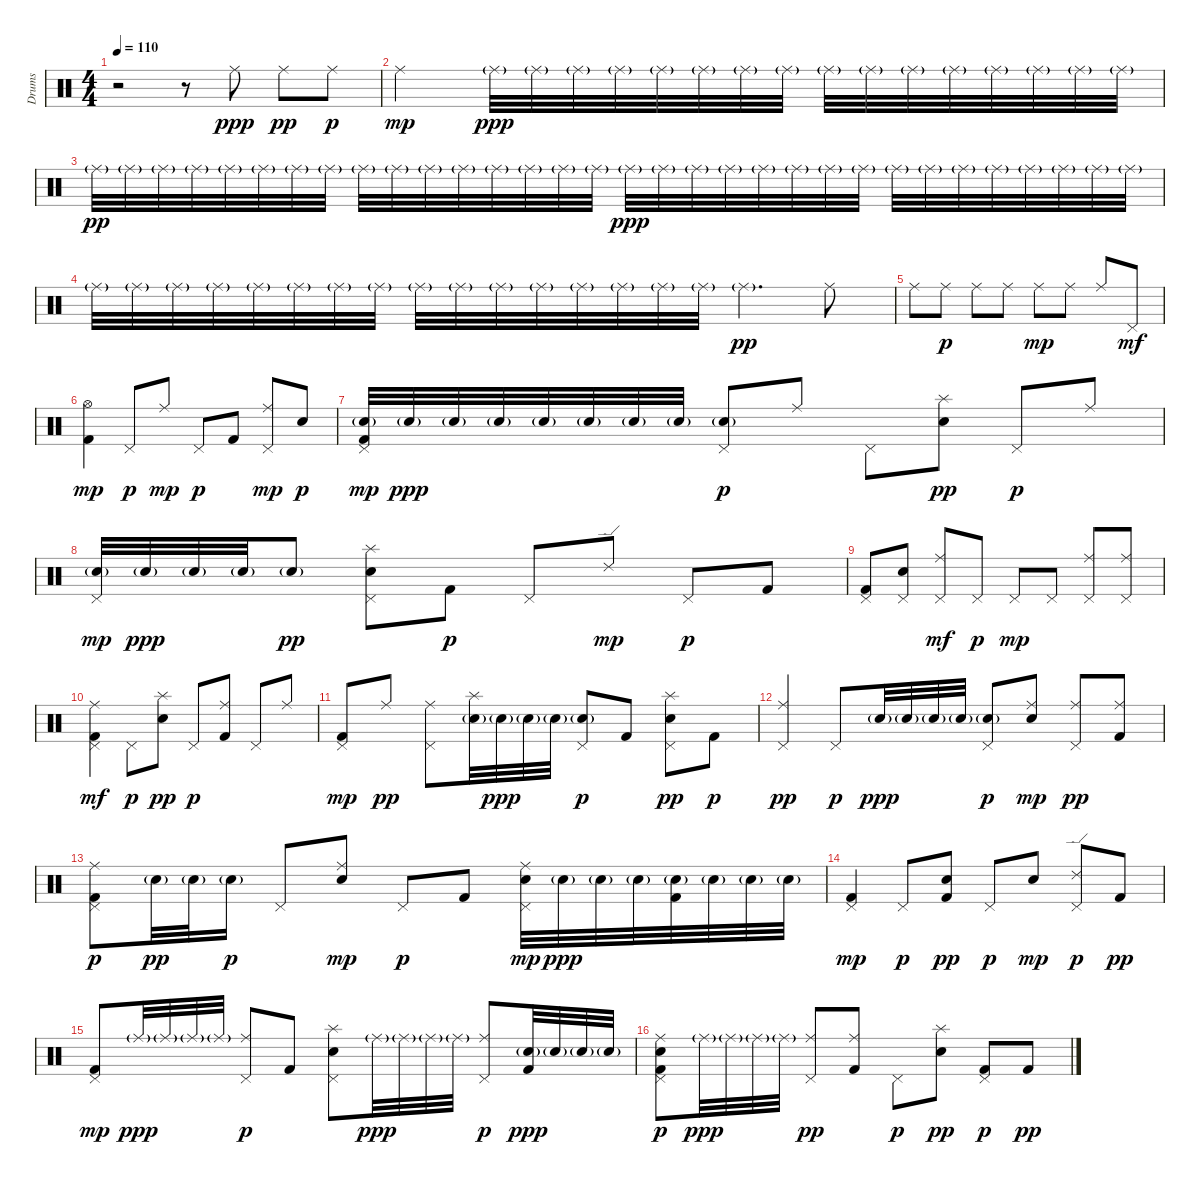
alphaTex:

\track ("Drums" "Drums") {instrument percussion}
\staff {score}
\articulation defaults
\ts (4 4)
\tempo 110
\clef neutral
\ks c
r.2{dy fff} r.8 "Ride (middle)".8{dy ppp volume 10} "Ride (middle)".8{dy pp} "Ride (middle)".8{dy p} |
"Ride (middle)".2{dy mp} "Ride (middle)"{g}.32{dy ppp volume 5} "Ride (middle)"{g}.32 "Ride (middle)"{g}.32 "Ride (middle)"{g}.32 "Ride (middle)"{g}.32 "Ride (middle)"{g}.32 "Ride (middle)"{g}.32 "Ride (middle)"{g}.32 "Ride (middle)"{g}.32 "Ride (middle)"{g}.32 "Ride (middle)"{g}.32 "Ride (middle)"{g}.32 "Ride (middle)"{g}.32 "Ride (middle)"{g}.32 "Ride (middle)"{g}.32 "Ride (middle)"{g}.32 |
"Ride (middle)"{g}.32{dy pp} "Ride (middle)"{g}.32 "Ride (middle)"{g}.32 "Ride (middle)"{g}.32 "Ride (middle)"{g}.32 "Ride (middle)"{g}.32 "Ride (middle)"{g}.32 "Ride (middle)"{g}.32 "Ride (middle)"{g}.32 "Ride (middle)"{g}.32 "Ride (middle)"{g}.32 "Ride (middle)"{g}.32 "Ride (middle)"{g}.32 "Ride (middle)"{g}.32 "Ride (middle)"{g}.32 "Ride (middle)"{g}.32 "Ride (middle)"{g}.32{dy ppp} "Ride (middle)"{g}.32 "Ride (middle)"{g}.32 "Ride (middle)"{g}.32 "Ride (middle)"{g}.32 "Ride (middle)"{g}.32 "Ride (middle)"{g}.32 "Ride (middle)"{g}.32 "Ride (middle)"{g}.32 "Ride (middle)"{g}.32 "Ride (middle)"{g}.32 "Ride (middle)"{g}.32 "Ride (middle)"{g}.32 "Ride (middle)"{g}.32 "Ride (middle)"{g}.32 "Ride (middle)"{g}.32 |
"Ride (middle)"{g}.32{volume 3} "Ride (middle)"{g}.32 "Ride (middle)"{g}.32 "Ride (middle)"{g}.32 "Ride (middle)"{g}.32 "Ride (middle)"{g}.32 "Ride (middle)"{g}.32 "Ride (middle)"{g}.32 "Ride (middle)"{g}.32 "Ride (middle)"{g}.32 "Ride (middle)"{g}.32 "Ride (middle)"{g}.32 "Ride (middle)"{g}.32 "Ride (middle)"{g}.32 "Ride (middle)"{g}.32 "Ride (middle)"{g}.32 "Ride (middle)"{g}.4{d dy pp volume 10} "Ride (middle)".8{volume 14} |
"Ride (middle)".8 "Ride (middle)".8{dy p} "Ride (middle)".8 "Ride (middle)".8 "Ride (middle)".8{dy mp} "Ride (middle)".8 "Ride (middle)".8 "Pedal Hi-Hat (hit)".8{dy mf} |
("Kick (hit) 2" "Hi-Hat (open)").4{dy mp} "Pedal Hi-Hat (hit)".8{dy p} "Ride (middle)".8{dy mp} "Pedal Hi-Hat (hit)".8{dy p} "Kick (hit) 2".8 ("Pedal Hi-Hat (hit)" "Ride (middle)").8{dy mp} "Snare (hit) 2".8{dy p} |
("Kick (hit) 2" "Snare (hit) 2"{g} "Pedal Hi-Hat (hit)").32{dy mp} "Snare (hit) 2"{g}.32{dy ppp} "Snare (hit) 2"{g}.32 "Snare (hit) 2"{g}.32 "Snare (hit) 2"{g}.32 "Snare (hit) 2"{g}.32 "Snare (hit) 2"{g}.32 "Snare (hit) 2"{g}.32 ("Snare (hit) 2"{g} "Pedal Hi-Hat (hit)").8{dy p} "Ride (middle)".8 "Pedal Hi-Hat (hit)".8 ("Snare (hit) 2" "Splash (hit)").8{dy pp} "Pedal Hi-Hat (hit)".8{dy p} "Ride (middle)".8 |
("Snare (hit) 2"{g} "Pedal Hi-Hat (hit)").32{dy mp} "Snare (hit) 2"{g}.32{dy ppp} "Snare (hit) 2"{g}.32 "Snare (hit) 2"{g}.32 "Snare (hit) 2"{g}.8{dy pp} ("Snare (hit) 2" "Pedal Hi-Hat (hit)" "Splash (hit)").8 "Kick (hit) 2".8{dy p} "Pedal Hi-Hat (hit)".8 "Ride (edge) 2".8{dy mp} "Pedal Hi-Hat (hit)".8{dy p} "Kick (hit) 2".8 |
("Kick (hit) 2" "Pedal Hi-Hat (hit)").8 ("Snare (hit) 2" "Pedal Hi-Hat (hit)").8 ("Pedal Hi-Hat (hit)" "Ride (middle)").8{dy mf} "Pedal Hi-Hat (hit)".8{dy p} "Pedal Hi-Hat (hit)".8{dy mp} "Pedal Hi-Hat (hit)".8 ("Pedal Hi-Hat (hit)" "Ride (middle)").8 ("Pedal Hi-Hat (hit)" "Ride (middle)").8 |
("Kick (hit) 2" "Pedal Hi-Hat (hit)" "Ride (middle)").4{dy mf} "Pedal Hi-Hat (hit)".8{dy p} ("Snare (hit) 2" "Splash (hit)").8{dy pp} "Pedal Hi-Hat (hit)".8{dy p} ("Kick (hit) 2" "Ride (middle)").8 "Pedal Hi-Hat (hit)".8 "Ride (middle)".8 |
("Kick (hit) 2" "Pedal Hi-Hat (hit)").8{dy mp} "Ride (middle)".8{dy pp} ("Pedal Hi-Hat (hit)" "Ride (middle)").8 ("Snare (hit) 2"{g} "Splash (hit)").32 "Snare (hit) 2"{g}.32{dy ppp} "Snare (hit) 2"{g}.32 "Snare (hit) 2"{g}.32 ("Snare (hit) 2"{g} "Pedal Hi-Hat (hit)").8{dy p} "Kick (hit) 2".8 ("Snare (hit) 2" "Pedal Hi-Hat (hit)" "Splash (hit)").8{dy pp} "Kick (hit) 2".8{dy p} |
("Pedal Hi-Hat (hit)" "Ride (middle)").4{dy pp} "Pedal Hi-Hat (hit)".8{dy p} "Snare (hit) 2"{g}.32{dy ppp} "Snare (hit) 2"{g}.32 "Snare (hit) 2"{g}.32 "Snare (hit) 2"{g}.32 ("Snare (hit) 2"{g} "Pedal Hi-Hat (hit)").8{dy p} ("Snare (hit) 2" "Ride (middle)").8{dy mp} ("Pedal Hi-Hat (hit)" "Ride (middle)").8{dy pp} ("Kick (hit) 2" "Ride (middle)").8 |
("Kick (hit) 2" "Pedal Hi-Hat (hit)" "Ride (middle)").8{dy p} "Snare (hit) 2"{g}.32{dy pp} "Snare (hit) 2"{g}.32 "Snare (hit) 2"{g}.16{dy p} "Pedal Hi-Hat (hit)".8 ("Snare (hit) 2" "Ride (middle)").8{dy mp} "Pedal Hi-Hat (hit)".8{dy p} "Kick (hit) 2".8 ("Snare (hit) 2" "Pedal Hi-Hat (hit)" "Ride (middle)").32{dy mp} "Snare (hit) 2"{g}.32{dy ppp} "Snare (hit) 2"{g}.32 "Snare (hit) 2"{g}.32 ("Kick (hit) 2" "Snare (hit) 2"{g}).32 "Snare (hit) 2"{g}.32 "Snare (hit) 2"{g}.32 "Snare (hit) 2"{g}.32 |
("Kick (hit) 2" "Pedal Hi-Hat (hit)").4{dy mp} "Pedal Hi-Hat (hit)".8{dy p} ("Kick (hit) 2" "Snare (hit) 2").8{dy pp} "Pedal Hi-Hat (hit)".8{dy p} "Snare (hit) 2".8{dy mp} ("Pedal Hi-Hat (hit)" "Ride (edge) 2").8{dy p} "Kick (hit) 2".8{dy pp} |
("Kick (hit) 2" "Pedal Hi-Hat (hit)").8{dy mp} "Ride (middle)"{g}.32{dy ppp} "Ride (middle)"{g}.32 "Ride (middle)"{g}.32 "Ride (middle)"{g}.32 ("Pedal Hi-Hat (hit)" "Ride (middle)").8{dy p} "Kick (hit) 2".8 ("Snare (hit) 2" "Pedal Hi-Hat (hit)" "Splash (hit)").8 "Ride (middle)"{g}.32{dy ppp} "Ride (middle)"{g}.32 "Ride (middle)"{g}.32 "Ride (middle)"{g}.32 ("Pedal Hi-Hat (hit)" "Ride (middle)").8{dy p} ("Kick (hit) 2" "Snare (hit) 2"{g}).32{dy ppp} "Snare (hit) 2"{g}.32 "Snare (hit) 2"{g}.32 "Snare (hit) 2"{g}.32 |
("Kick (hit) 2" "Snare (hit) 2" "Pedal Hi-Hat (hit)" "Ride (middle)").8{dy p} "Ride (middle)"{g}.32{dy ppp} "Ride (middle)"{g}.32 "Ride (middle)"{g}.32 "Ride (middle)"{g}.32 ("Pedal Hi-Hat (hit)" "Ride (middle)").8{dy pp} ("Kick (hit) 2" "Ride (middle)").8 "Pedal Hi-Hat (hit)".8{dy p} ("Snare (hit) 2" "Splash (hit)").8{dy pp} ("Kick (hit) 2" "Pedal Hi-Hat (hit)").8{dy p} "Kick (hit) 2".8{dy pp}
